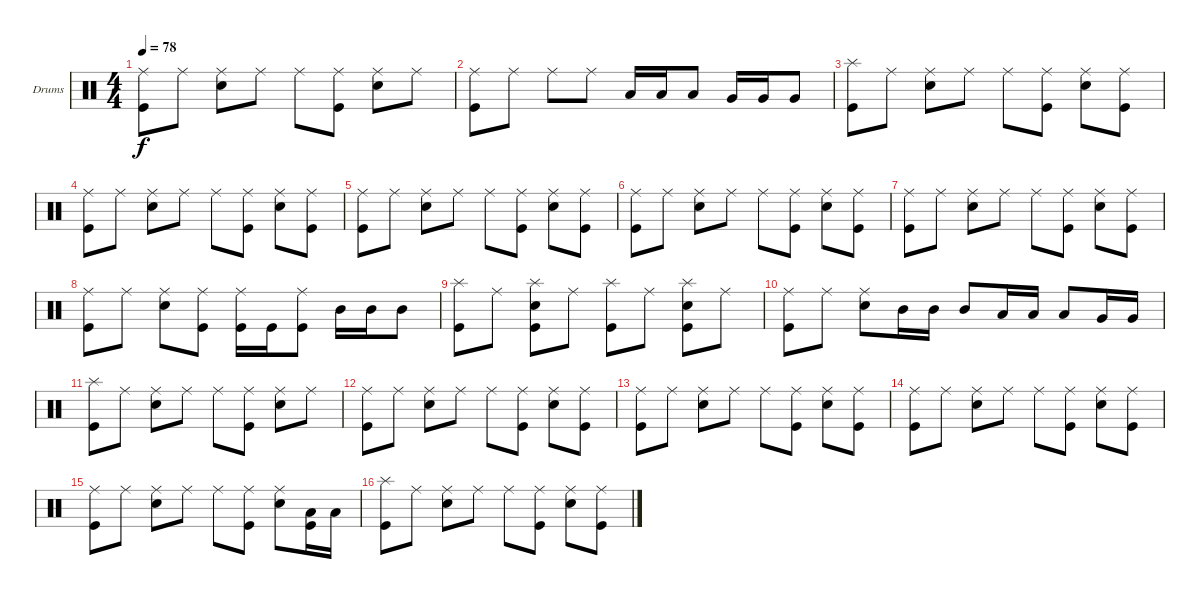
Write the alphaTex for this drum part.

\bracketExtendMode groupsimilarinstruments
\firstSystemTrackNameOrientation horizontal
\otherSystemsTrackNameOrientation horizontal
\track ("Drumkit" "Drums") {instrument percussion}
\staff {score}
\articulation defaults
\ts (4 4)
\tempo 78
\clef neutral
\ks c
("Ride (middle)" "Kick (hit)").8{dy f} "Ride (middle)".8 ("Ride (middle)" "Snare (hit) 2").8 "Ride (middle)".8 "Ride (middle)".8 ("Ride (middle)" "Kick (hit)").8 ("Ride (middle)" "Snare (hit) 2").8 "Ride (middle)".8 |
("Ride (middle)" "Kick (hit)").8 "Ride (middle)".8 "Ride (middle)".8 "Ride (middle)".8 "Low Tom (hit)".16 "Low Tom (hit)".16 "Low Tom (hit)".8 "Very Low Tom (hit)".16 "Very Low Tom (hit)".16 "Very Low Tom (hit)".8 |
("Splash (hit)" "Kick (hit)").8 "Ride (middle)".8 ("Ride (middle)" "Snare (hit) 2").8 "Ride (middle)".8 "Ride (middle)".8 ("Ride (middle)" "Kick (hit)").8 ("Ride (middle)" "Snare (hit) 2").8 ("Ride (middle)" "Kick (hit)").8 |
("Ride (middle)" "Kick (hit)").8 "Ride (middle)".8 ("Ride (middle)" "Snare (hit) 2").8 "Ride (middle)".8 "Ride (middle)".8 ("Ride (middle)" "Kick (hit)").8 ("Ride (middle)" "Snare (hit) 2").8 ("Ride (middle)" "Kick (hit)").8 |
("Ride (middle)" "Kick (hit)").8 "Ride (middle)".8 ("Ride (middle)" "Snare (hit) 2").8 "Ride (middle)".8 "Ride (middle)".8 ("Ride (middle)" "Kick (hit)").8 ("Ride (middle)" "Snare (hit) 2").8 ("Ride (middle)" "Kick (hit)").8 |
("Ride (middle)" "Kick (hit)").8 "Ride (middle)".8 ("Ride (middle)" "Snare (hit) 2").8 "Ride (middle)".8 "Ride (middle)".8 ("Ride (middle)" "Kick (hit)").8 ("Ride (middle)" "Snare (hit) 2").8 ("Ride (middle)" "Kick (hit)").8 |
("Ride (middle)" "Kick (hit)").8 "Ride (middle)".8 ("Ride (middle)" "Snare (hit) 2").8 "Ride (middle)".8 "Ride (middle)".8 ("Ride (middle)" "Kick (hit)").8 ("Ride (middle)" "Snare (hit) 2").8 ("Ride (middle)" "Kick (hit)").8 |
("Ride (middle)" "Kick (hit)").8 "Ride (middle)".8 ("Ride (middle)" "Snare (hit) 2").8 ("Ride (middle)" "Kick (hit)").8 ("Ride (middle)" "Kick (hit)").16 "Kick (hit)".16 ("Ride (middle)" "Kick (hit)").8 "Mid Tom (hit)".16 "Mid Tom (hit)".16 "Mid Tom (hit)".8 |
("Splash (hit)" "Kick (hit)").8 "Ride (middle)".8 ("Splash (hit)" "Snare (hit) 2" "Kick (hit)").8 "Ride (middle)".8 ("Splash (hit)" "Kick (hit)").8 "Ride (middle)".8 ("Splash (hit)" "Snare (hit) 2" "Kick (hit)").8 "Ride (middle)".8 |
("Ride (middle)" "Kick (hit)").8 "Ride (middle)".8 ("Ride (middle)" "Snare (hit) 2").8 "Mid Tom (hit)".16 "Mid Tom (hit)".16 "Mid Tom (hit)".8 "Low Tom (hit)".16 "Low Tom (hit)".16 "Low Tom (hit)".8 "Very Low Tom (hit)".16 "Very Low Tom (hit)".16 |
("Splash (hit)" "Kick (hit)").8 "Ride (middle)".8 ("Ride (middle)" "Snare (hit) 2").8 "Ride (middle)".8 "Ride (middle)".8 ("Ride (middle)" "Kick (hit)").8 ("Ride (middle)" "Snare (hit) 2").8 "Ride (middle)".8 |
("Ride (middle)" "Kick (hit)").8 "Ride (middle)".8 ("Ride (middle)" "Snare (hit) 2").8 "Ride (middle)".8 "Ride (middle)".8 ("Ride (middle)" "Kick (hit)").8 ("Ride (middle)" "Snare (hit) 2").8 ("Ride (middle)" "Kick (hit)").8 |
("Ride (middle)" "Kick (hit)").8 "Ride (middle)".8 ("Ride (middle)" "Snare (hit) 2").8 "Ride (middle)".8 "Ride (middle)".8 ("Ride (middle)" "Kick (hit)").8 ("Ride (middle)" "Snare (hit) 2").8 ("Ride (middle)" "Kick (hit)").8 |
("Ride (middle)" "Kick (hit)").8 "Ride (middle)".8 ("Ride (middle)" "Snare (hit) 2").8 "Ride (middle)".8 "Ride (middle)".8 ("Ride (middle)" "Kick (hit)").8 ("Ride (middle)" "Snare (hit) 2").8 ("Ride (middle)" "Kick (hit)").8 |
("Ride (middle)" "Kick (hit)").8 "Ride (middle)".8 ("Ride (middle)" "Snare (hit) 2").8 "Ride (middle)".8 "Ride (middle)".8 ("Ride (middle)" "Kick (hit)").8 ("Ride (middle)" "Snare (hit) 2").8 ("Low Tom (hit)" "Kick (hit)").16 "Low Tom (hit)".16 |
("Splash (hit)" "Kick (hit)").8 "Ride (middle)".8 ("Ride (middle)" "Snare (hit) 2").8 "Ride (middle)".8 "Ride (middle)".8 ("Ride (middle)" "Kick (hit)").8 ("Ride (middle)" "Snare (hit) 2").8 ("Ride (middle)" "Kick (hit)").8
